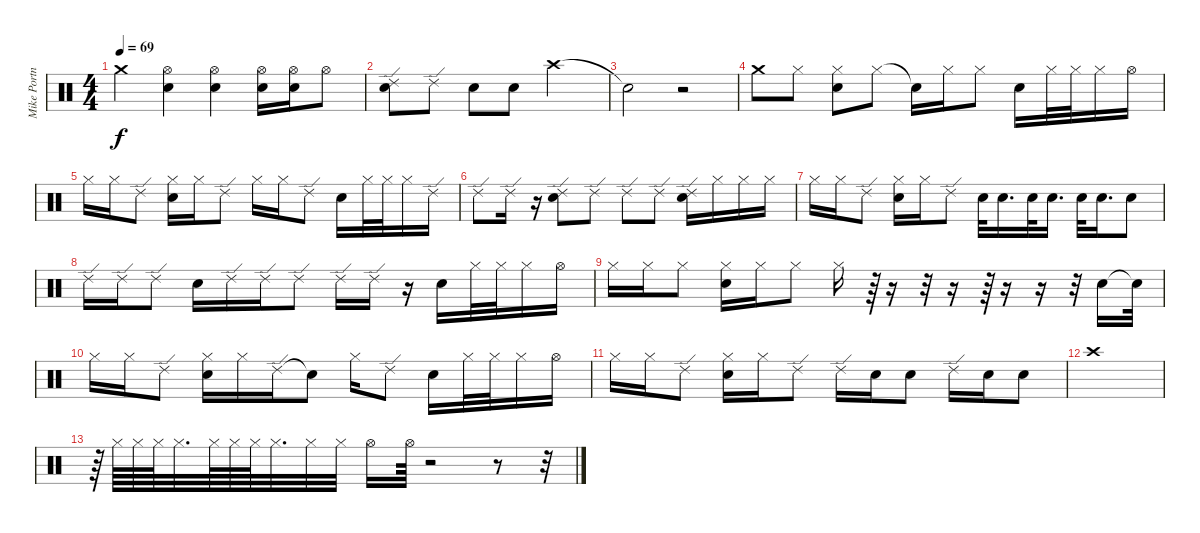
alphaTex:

\track ("Mike Portnoy" "Mike Portn") {instrument percussion}
\staff {score}
\articulation defaults
\ts (4 4)
\tempo 69
\clef neutral
\ks c "Crash medium (hit)".4{dy f}
("Snare (hit) 2" "Hi-Hat (open)").4 ("Snare (hit) 2" "Hi-Hat (open)").4 ("Snare (hit) 2" "Hi-Hat (open)").16 ("Snare (hit) 2" "Hi-Hat (open)").16 "Hi-Hat (open)".8 |
("Snare (hit) 2" "Ride (edge) 2").8 "Ride (edge) 2".8 "Snare (hit) 2".8 "Snare (hit) 2".8 "Crash high (hit)".2 |
"Snare (hit)"{t}.2 r.2 |
"Crash medium (hit)".8 "Hi-Hat (closed)".8 ("Snare (hit) 2" "Hi-Hat (closed)").8 "Hi-Hat (closed)".8 "Snare (hit)"{t}.16 "Hi-Hat (closed)".16 "Hi-Hat (closed)".8 "Snare (hit) 2".16 "Hi-Hat (closed)".32 "Hi-Hat (closed)".32 "Hi-Hat (closed)".16 "Hi-Hat (open)".16 |
"Hi-Hat (closed)".16 "Hi-Hat (closed)".16 "Ride (edge) 2".8 ("Snare (hit) 2" "Hi-Hat (closed)").16 "Hi-Hat (closed)".16 "Ride (edge) 2".8 "Hi-Hat (closed)".16 "Hi-Hat (closed)".16 "Ride (edge) 2".8 "Snare (hit) 2".16 "Hi-Hat (closed)".32 "Hi-Hat (closed)".32 "Hi-Hat (closed)".16 "Ride (edge) 2".16 |
"Ride (edge) 2".8 "Ride (edge) 2".16 r.16 ("Snare (hit) 2" "Ride (edge) 2").8 "Ride (edge) 2".8 "Ride (edge) 2".8 "Ride (edge) 2".8 ("Snare (hit) 2" "Ride (edge) 2").16 "Hi-Hat (closed)".16 "Hi-Hat (closed)".16 "Hi-Hat (closed)".16 |
"Hi-Hat (closed)".16 "Hi-Hat (closed)".16 "Ride (edge) 2".8 ("Snare (hit) 2" "Hi-Hat (closed)").16 "Hi-Hat (closed)".16 "Ride (edge) 2".8 "Snare (hit) 2".32 "Snare (hit) 2".16{d} "Snare (hit) 2".32 "Snare (hit) 2".16{d} "Snare (hit) 2".32 "Snare (hit) 2".16{d} "Snare (hit) 2".8 |
"Ride (edge) 2".16 "Ride (edge) 2".16 "Ride (edge) 2".8 "Snare (hit) 2".16 "Ride (edge) 2".16 "Ride (edge) 2".16 "Ride (edge) 2".8 "Ride (edge) 2".16 "Ride (edge) 2".16 r.16 "Snare (hit) 2".16 "Hi-Hat (closed)".32 "Hi-Hat (closed)".32 "Hi-Hat (closed)".16 "Hi-Hat (open)".16 |
"Hi-Hat (closed)".16 "Hi-Hat (closed)".16 "Hi-Hat (closed)".8 ("Snare (hit) 2" "Hi-Hat (closed)").16 "Hi-Hat (closed)".16 "Hi-Hat (closed)".8 "Hi-Hat (closed)".16 r.64 r.16 r.32 r.16 r.64 r.16 r.16 r.32 "Snare (hit) 2".16 "Snare (hit)"{t}.32 |
"Hi-Hat (closed)".16 "Hi-Hat (closed)".16 "Ride (edge) 2".8 ("Snare (hit) 2" "Hi-Hat (closed)").16 "Hi-Hat (closed)".16 "Ride (edge) 2".16 "Snare (hit)"{t}.8 "Hi-Hat (closed)".16 "Ride (edge) 2".8 "Snare (hit) 2".16 "Hi-Hat (closed)".32 "Hi-Hat (closed)".32 "Hi-Hat (closed)".16 "Hi-Hat (open)".16 |
"Hi-Hat (closed)".16 "Hi-Hat (closed)".16 "Ride (edge) 2".8 ("Snare (hit) 2" "Hi-Hat (closed)").16 "Hi-Hat (closed)".16 "Ride (edge) 2".8 "Ride (edge) 2".16 "Snare (hit) 2".16 "Snare (hit) 2".8 "Ride (edge) 2".16 "Snare (hit) 2".16 "Snare (hit) 2".8 |
"Crash high (hit)".1 |
r.64 "Hi-Hat (closed)".64 "Hi-Hat (closed)".64 "Hi-Hat (closed)".64 "Hi-Hat (closed)".32{d} "Hi-Hat (closed)".64 "Hi-Hat (closed)".64 "Hi-Hat (closed)".64 "Hi-Hat (closed)".32{d} "Hi-Hat (closed)".32 "Hi-Hat (closed)".32 "Hi-Hat (open)".16 "Hi-Hat (open)".64 r.2 r.8 r.32
